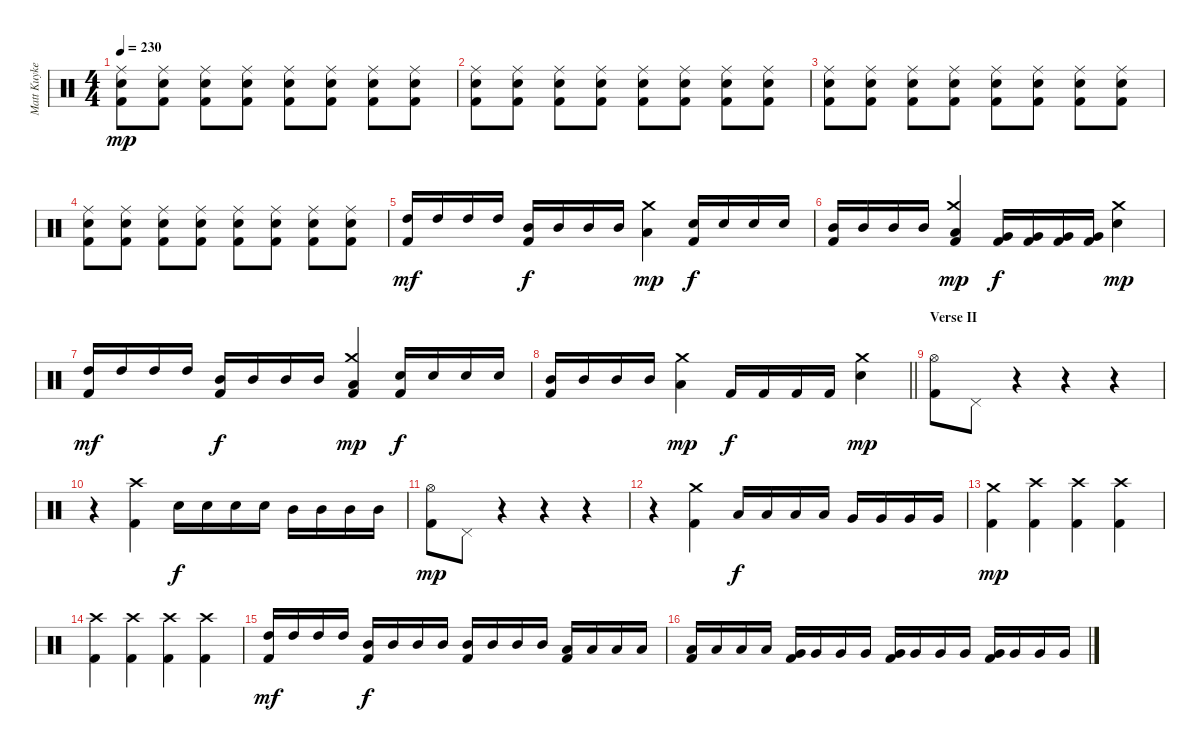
\track ("Matt Kuykendall" "Matt Kuyke") {instrument percussion}
\staff {score}
\articulation defaults
\ts (4 4)
\tempo 230
\clef neutral
\ks c
("Ride (middle)" "Electric Snare (hit)" "Kick (hit) 2").8{dy mp} ("Ride (middle)" "Electric Snare (hit)" "Kick (hit) 2").8 ("Ride (middle)" "Electric Snare (hit)" "Kick (hit) 2").8 ("Ride (middle)" "Electric Snare (hit)" "Kick (hit) 2").8 ("Ride (middle)" "Electric Snare (hit)" "Kick (hit) 2").8 ("Ride (middle)" "Electric Snare (hit)" "Kick (hit) 2").8 ("Ride (middle)" "Electric Snare (hit)" "Kick (hit) 2").8 ("Ride (middle)" "Electric Snare (hit)" "Kick (hit) 2").8 |
("Ride (middle)" "Electric Snare (hit)" "Kick (hit) 2").8 ("Ride (middle)" "Electric Snare (hit)" "Kick (hit) 2").8 ("Ride (middle)" "Electric Snare (hit)" "Kick (hit) 2").8 ("Ride (middle)" "Electric Snare (hit)" "Kick (hit) 2").8 ("Ride (middle)" "Electric Snare (hit)" "Kick (hit) 2").8 ("Ride (middle)" "Electric Snare (hit)" "Kick (hit) 2").8 ("Ride (middle)" "Electric Snare (hit)" "Kick (hit) 2").8 ("Ride (middle)" "Electric Snare (hit)" "Kick (hit) 2").8 |
("Ride (middle)" "Electric Snare (hit)" "Kick (hit) 2").8 ("Ride (middle)" "Electric Snare (hit)" "Kick (hit) 2").8 ("Ride (middle)" "Electric Snare (hit)" "Kick (hit) 2").8 ("Ride (middle)" "Electric Snare (hit)" "Kick (hit) 2").8 ("Ride (middle)" "Electric Snare (hit)" "Kick (hit) 2").8 ("Ride (middle)" "Electric Snare (hit)" "Kick (hit) 2").8 ("Ride (middle)" "Electric Snare (hit)" "Kick (hit) 2").8 ("Ride (middle)" "Electric Snare (hit)" "Kick (hit) 2").8 |
("Ride (middle)" "Electric Snare (hit)" "Kick (hit) 2").8 ("Ride (middle)" "Electric Snare (hit)" "Kick (hit) 2").8 ("Ride (middle)" "Electric Snare (hit)" "Kick (hit) 2").8 ("Ride (middle)" "Electric Snare (hit)" "Kick (hit) 2").8 ("Ride (middle)" "Electric Snare (hit)" "Kick (hit) 2").8 ("Ride (middle)" "Electric Snare (hit)" "Kick (hit) 2").8 ("Ride (middle)" "Electric Snare (hit)" "Kick (hit) 2").8 ("Ride (middle)" "Electric Snare (hit)" "Kick (hit) 2").8 |
("High Tom (hit)" "Kick (hit) 2").16{dy mf} "High Tom (hit)".16 "High Tom (hit)".16 "High Tom (hit)".16 ("Mid Tom (hit)" "Kick (hit) 2").16{dy f} "Mid Tom (hit)".16 "Mid Tom (hit)".16 "Mid Tom (hit)".16 ("Crash medium (hit)" "Low Tom (hit)").4{dy mp} ("Electric Snare (hit)" "Kick (hit) 2").16{dy f} "Electric Snare (hit)".16 "Electric Snare (hit)".16 "Electric Snare (hit)".16 |
("Mid Tom (hit)" "Kick (hit) 2").16 "Mid Tom (hit)".16 "Mid Tom (hit)".16 "Mid Tom (hit)".16 ("Crash medium (hit)" "Low Tom (hit)" "Kick (hit) 2").4{dy mp} ("Very Low Tom (hit)" "Kick (hit) 2").16{dy f} ("Very Low Tom (hit)" "Kick (hit) 2").16 ("Very Low Tom (hit)" "Kick (hit) 2").16 ("Very Low Tom (hit)" "Kick (hit) 2").16 ("Crash medium (hit)" "Electric Snare (hit)").4{dy mp} |
("High Tom (hit)" "Kick (hit) 2").16{dy mf} "High Tom (hit)".16 "High Tom (hit)".16 "High Tom (hit)".16 ("Mid Tom (hit)" "Kick (hit) 2").16{dy f} "Mid Tom (hit)".16 "Mid Tom (hit)".16 "Mid Tom (hit)".16 ("Crash medium (hit)" "Low Tom (hit)" "Kick (hit) 2").4{dy mp} ("Electric Snare (hit)" "Kick (hit) 2").16{dy f} "Electric Snare (hit)".16 "Electric Snare (hit)".16 "Electric Snare (hit)".16 |
\barLineRight lightlight
("Mid Tom (hit)" "Kick (hit) 2").16 "Mid Tom (hit)".16 "Mid Tom (hit)".16 "Mid Tom (hit)".16 ("Crash medium (hit)" "Low Tom (hit)").4{dy mp} "Kick (hit) 2".16{dy f} "Kick (hit) 2".16 "Kick (hit) 2".16 "Kick (hit) 2".16 ("Crash medium (hit)" "Electric Snare (hit)").4{dy mp} |
\section ("" "Verse II")
("Hi-Hat (open)" "Kick (hit) 2").8 "Pedal Hi-Hat (hit)".8 r.4 r.4 r.4 |
r.4 ("Crash high (hit)" "Kick (hit) 2").4 "Electric Snare (hit)".16{dy f} "Electric Snare (hit)".16 "Electric Snare (hit)".16 "Electric Snare (hit)".16 "Mid Tom (hit)".16 "Mid Tom (hit)".16 "Mid Tom (hit)".16 "Mid Tom (hit)".16 |
("Hi-Hat (open)" "Kick (hit) 2").8{dy mp} "Pedal Hi-Hat (hit)".8 r.4 r.4 r.4 |
r.4 ("Crash medium (hit)" "Kick (hit) 2").4 "Low Tom (hit)".16{dy f} "Low Tom (hit)".16 "Low Tom (hit)".16 "Low Tom (hit)".16 "Very Low Tom (hit)".16 "Very Low Tom (hit)".16 "Very Low Tom (hit)".16 "Very Low Tom (hit)".16 |
("Crash medium (hit)" "Kick (hit) 2").4{dy mp} ("Crash high (hit)" "Kick (hit) 2").4 ("Crash high (hit)" "Kick (hit) 2").4 ("Crash high (hit)" "Kick (hit) 2").4 |
("Crash high (hit)" "Kick (hit) 2").4 ("Crash high (hit)" "Kick (hit) 2").4 ("Crash high (hit)" "Kick (hit) 2").4 ("Crash high (hit)" "Kick (hit) 2").4 |
("High Tom (hit)" "Kick (hit) 2").16{dy mf} "High Tom (hit)".16 "High Tom (hit)".16 "High Tom (hit)".16 ("Mid Tom (hit)" "Kick (hit) 2").16{dy f} "Mid Tom (hit)".16 "Mid Tom (hit)".16 "Mid Tom (hit)".16 ("Mid Tom (hit)" "Kick (hit) 2").16 "Mid Tom (hit)".16 "Mid Tom (hit)".16 "Mid Tom (hit)".16 ("Low Tom (hit)" "Kick (hit) 2").16 "Low Tom (hit)".16 "Low Tom (hit)".16 "Low Tom (hit)".16 |
("Low Tom (hit)" "Kick (hit) 2").16 "Low Tom (hit)".16 "Low Tom (hit)".16 "Low Tom (hit)".16 ("Very Low Tom (hit)" "Kick (hit) 2").16 "Very Low Tom (hit)".16 "Very Low Tom (hit)".16 "Very Low Tom (hit)".16 ("Very Low Tom (hit)" "Kick (hit) 2").16 "Very Low Tom (hit)".16 "Very Low Tom (hit)".16 "Very Low Tom (hit)".16 ("Very Low Tom (hit)" "Kick (hit) 2").16 "Very Low Tom (hit)".16 "Very Low Tom (hit)".16 "Very Low Tom (hit)".16
